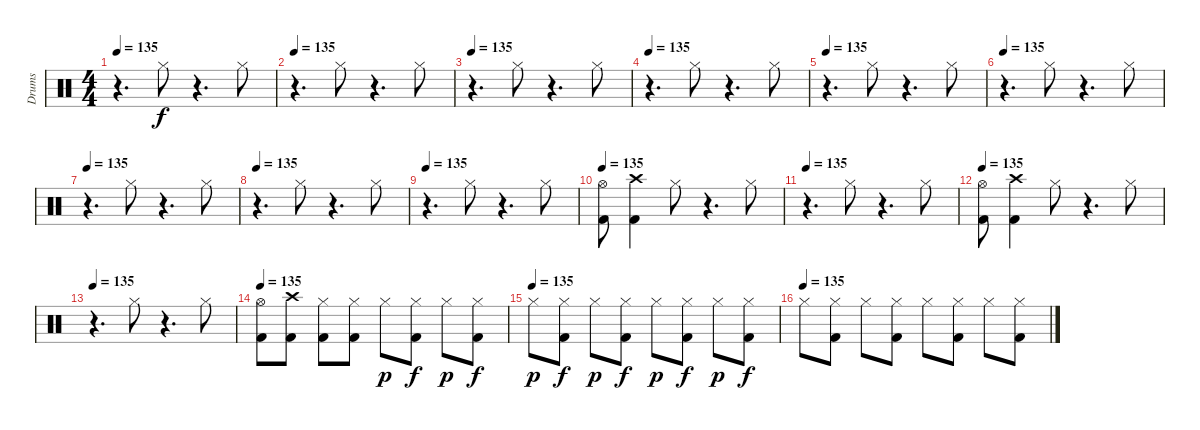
\track ("Drums" "Drums") {instrument percussion}
\staff {score}
\articulation defaults
\ts (4 4)
\tempo 135
\clef neutral
\ks c
r.4{d dy f} "Hi-Hat (closed)".8 r.4{d} "Hi-Hat (closed)".8 |
\tempo 135
r.4{d} "Hi-Hat (closed)".8 r.4{d} "Hi-Hat (closed)".8 |
\tempo 135
r.4{d} "Hi-Hat (closed)".8 r.4{d} "Hi-Hat (closed)".8 |
\tempo 135
r.4{d} "Hi-Hat (closed)".8 r.4{d} "Hi-Hat (closed)".8 |
\tempo 135
r.4{d} "Hi-Hat (closed)".8 r.4{d} "Hi-Hat (closed)".8 |
\tempo 135
r.4{d} "Hi-Hat (closed)".8 r.4{d} "Hi-Hat (closed)".8 |
\tempo 135
r.4{d} "Hi-Hat (closed)".8 r.4{d} "Hi-Hat (closed)".8 |
\tempo 135
r.4{d} "Hi-Hat (closed)".8 r.4{d} "Hi-Hat (closed)".8 |
\tempo 135
r.4{d} "Hi-Hat (closed)".8 r.4{d} "Hi-Hat (closed)".8 |
\tempo 135
("Hi-Hat (open)" "Kick (hit) 2").8 ("Crash high (hit)" "Kick (hit) 2").4 "Hi-Hat (closed)".8 r.4{d} "Hi-Hat (closed)".8 |
\tempo 135
r.4{d} "Hi-Hat (closed)".8 r.4{d} "Hi-Hat (closed)".8 |
\tempo 135
("Hi-Hat (open)" "Kick (hit) 2").8 ("Crash high (hit)" "Kick (hit) 2").4 "Hi-Hat (closed)".8 r.4{d} "Hi-Hat (closed)".8 |
\tempo 135
r.4{d} "Hi-Hat (closed)".8 r.4{d} "Hi-Hat (closed)".8 |
\tempo 135
("Hi-Hat (open)" "Kick (hit) 2").8 ("Crash high (hit)" "Kick (hit) 2").8 ("Hi-Hat (closed)" "Kick (hit) 2").8 ("Hi-Hat (closed)" "Kick (hit) 2").8 "Hi-Hat (closed)".8{dy p} ("Hi-Hat (closed)" "Kick (hit) 2").8{dy f} "Hi-Hat (closed)".8{dy p} ("Hi-Hat (closed)" "Kick (hit) 2").8{dy f} |
\tempo (135)
"Hi-Hat (closed)".8{dy p} ("Hi-Hat (closed)" "Kick (hit) 2").8{dy f} "Hi-Hat (closed)".8{dy p} ("Hi-Hat (closed)" "Kick (hit) 2").8{dy f} "Hi-Hat (closed)".8{dy p} ("Hi-Hat (closed)" "Kick (hit) 2").8{dy f} "Hi-Hat (closed)".8{dy p} ("Hi-Hat (closed)" "Kick (hit) 2").8{dy f} |
\tempo (135)
"Hi-Hat (closed)".8 ("Hi-Hat (closed)" "Kick (hit) 2").8 "Hi-Hat (closed)".8 ("Hi-Hat (closed)" "Kick (hit) 2").8 "Hi-Hat (closed)".8 ("Hi-Hat (closed)" "Kick (hit) 2").8 "Hi-Hat (closed)".8 ("Hi-Hat (closed)" "Kick (hit) 2").8
